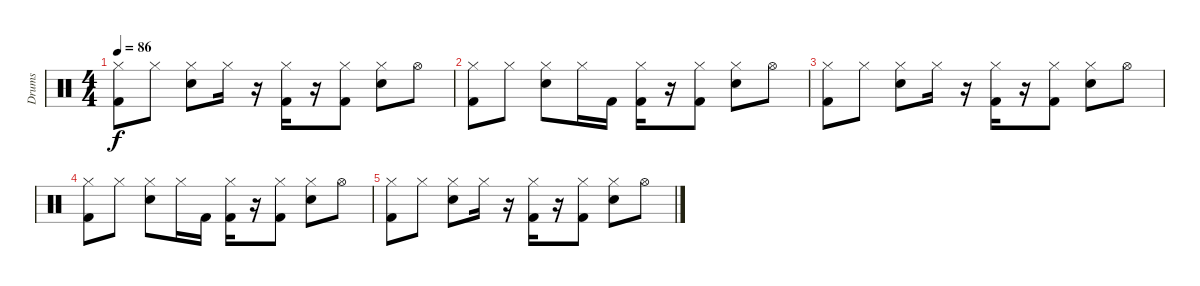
\track ("Drums" "Drums") {instrument percussion}
\staff {score}
\articulation defaults
\ts (4 4)
\tempo 86
\clef neutral
\ks c
("Kick (hit) 2" "Hi-Hat (closed)").8{dy f} "Hi-Hat (closed)".8 ("Snare (hit) 2" "Hi-Hat (closed)").8 "Hi-Hat (closed)".16 r.16 ("Kick (hit) 2" "Hi-Hat (closed)").16 r.16 ("Kick (hit) 2" "Hi-Hat (closed)").8 ("Snare (hit) 2" "Hi-Hat (closed)").8 "Hi-Hat (open)".8 |
("Kick (hit) 2" "Hi-Hat (closed)").8 "Hi-Hat (closed)".8 ("Snare (hit) 2" "Hi-Hat (closed)").8 "Hi-Hat (closed)".16 "Kick (hit) 2".16 ("Kick (hit) 2" "Hi-Hat (closed)").16 r.16 ("Kick (hit) 2" "Hi-Hat (closed)").8 ("Snare (hit) 2" "Hi-Hat (closed)").8 "Hi-Hat (open)".8 |
("Kick (hit) 2" "Hi-Hat (closed)").8 "Hi-Hat (closed)".8 ("Snare (hit) 2" "Hi-Hat (closed)").8 "Hi-Hat (closed)".16 r.16 ("Kick (hit) 2" "Hi-Hat (closed)").16 r.16 ("Kick (hit) 2" "Hi-Hat (closed)").8 ("Snare (hit) 2" "Hi-Hat (closed)").8 "Hi-Hat (open)".8 |
("Kick (hit) 2" "Hi-Hat (closed)").8 "Hi-Hat (closed)".8 ("Snare (hit) 2" "Hi-Hat (closed)").8 "Hi-Hat (closed)".16 "Kick (hit) 2".16 ("Kick (hit) 2" "Hi-Hat (closed)").16 r.16 ("Kick (hit) 2" "Hi-Hat (closed)").8 ("Snare (hit) 2" "Hi-Hat (closed)").8 "Hi-Hat (open)".8 |
("Kick (hit) 2" "Hi-Hat (closed)").8 "Hi-Hat (closed)".8 ("Snare (hit) 2" "Hi-Hat (closed)").8 "Hi-Hat (closed)".16 r.16 ("Kick (hit) 2" "Hi-Hat (closed)").16 r.16 ("Kick (hit) 2" "Hi-Hat (closed)").8 ("Snare (hit) 2" "Hi-Hat (closed)").8 "Hi-Hat (open)".8
